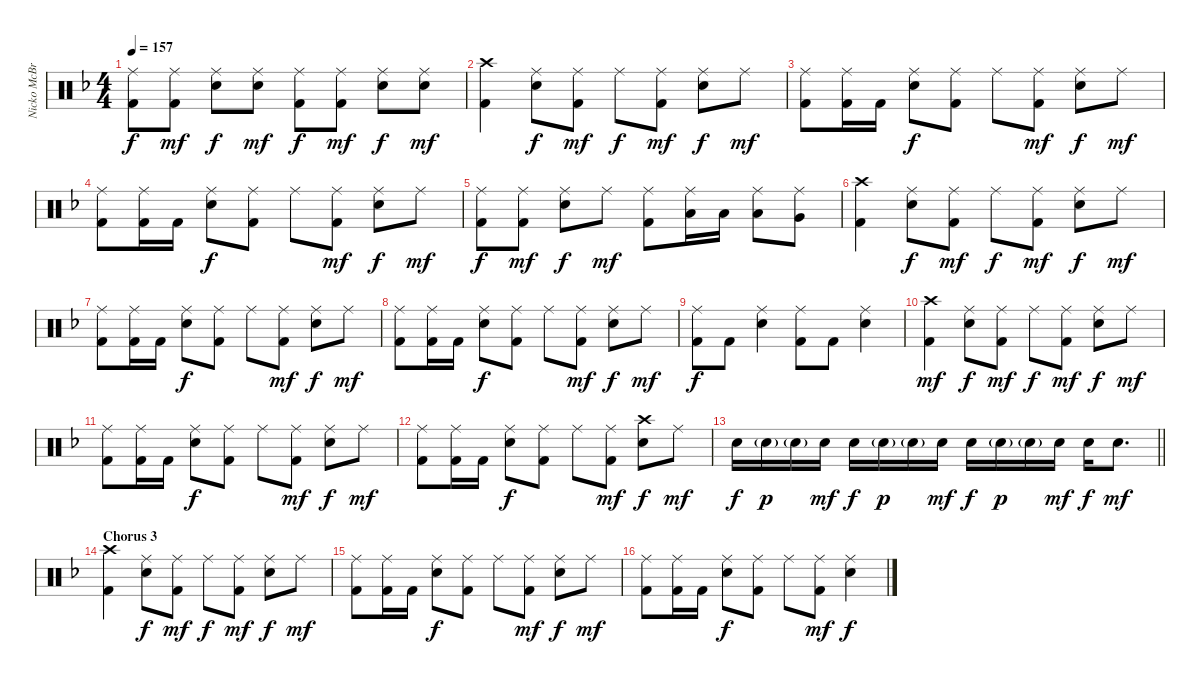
\track ("Nicko McBrain" "Nicko McBr") {instrument percussion}
\staff {score}
\articulation defaults
\ts (4 4)
\tempo 157
\clef neutral
\ks f
("Ride (middle)" "Kick (hit) 2").8{dy f} ("Ride (middle)" "Kick (hit) 2").8{dy mf} ("Ride (middle)" "Electric Snare (hit)").8{dy f} ("Ride (middle)" "Electric Snare (hit)").8{dy mf} ("Ride (middle)" "Kick (hit) 2").8{dy f} ("Ride (middle)" "Kick (hit) 2").8{dy mf} ("Ride (middle)" "Electric Snare (hit)").8{dy f} ("Ride (middle)" "Electric Snare (hit)").8{dy mf} |
("Crash high (hit)" "Kick (hit) 2").4 ("Ride (middle)" "Electric Snare (hit)").8{dy f} ("Ride (middle)" "Kick (hit) 2").8{dy mf} "Ride (middle)".8{dy f} ("Ride (middle)" "Kick (hit) 2").8{dy mf} ("Ride (middle)" "Electric Snare (hit)").8{dy f} "Ride (middle)".8{dy mf} |
("Ride (middle)" "Kick (hit) 2").8 ("Ride (middle)" "Kick (hit) 2").16 "Kick (hit) 2".16 ("Ride (middle)" "Electric Snare (hit)").8{dy f} ("Ride (middle)" "Kick (hit) 2").8 "Ride (middle)".8 ("Ride (middle)" "Kick (hit) 2").8{dy mf} ("Ride (middle)" "Electric Snare (hit)").8{dy f} "Ride (middle)".8{dy mf} |
("Ride (middle)" "Kick (hit) 2").8 ("Ride (middle)" "Kick (hit) 2").16 "Kick (hit) 2".16 ("Ride (middle)" "Electric Snare (hit)").8{dy f} ("Ride (middle)" "Kick (hit) 2").8 "Ride (middle)".8 ("Ride (middle)" "Kick (hit) 2").8{dy mf} ("Ride (middle)" "Electric Snare (hit)").8{dy f} "Ride (middle)".8{dy mf} |
("Ride (middle)" "Kick (hit) 2").8{dy f} ("Ride (middle)" "Kick (hit) 2").8{dy mf} ("Ride (middle)" "Electric Snare (hit)").8{dy f} "Ride (middle)".8{dy mf} ("Ride (middle)" "Kick (hit) 2").8 ("Ride (middle)" "Low Tom (hit)").16 "Low Tom (hit)".16 ("Ride (middle)" "Low Tom (hit)").8 ("Ride (middle)" "Very Low Tom (hit)").8 |
("Crash high (hit)" "Kick (hit) 2").4 ("Ride (middle)" "Electric Snare (hit)").8{dy f} ("Ride (middle)" "Kick (hit) 2").8{dy mf} "Ride (middle)".8{dy f} ("Ride (middle)" "Kick (hit) 2").8{dy mf} ("Ride (middle)" "Electric Snare (hit)").8{dy f} "Ride (middle)".8{dy mf} |
("Ride (middle)" "Kick (hit) 2").8 ("Ride (middle)" "Kick (hit) 2").16 "Kick (hit) 2".16 ("Ride (middle)" "Electric Snare (hit)").8{dy f} ("Ride (middle)" "Kick (hit) 2").8 "Ride (middle)".8 ("Ride (middle)" "Kick (hit) 2").8{dy mf} ("Ride (middle)" "Electric Snare (hit)").8{dy f} "Ride (middle)".8{dy mf} |
("Ride (middle)" "Kick (hit) 2").8 ("Ride (middle)" "Kick (hit) 2").16 "Kick (hit) 2".16 ("Ride (middle)" "Electric Snare (hit)").8{dy f} ("Ride (middle)" "Kick (hit) 2").8 "Ride (middle)".8 ("Ride (middle)" "Kick (hit) 2").8{dy mf} ("Ride (middle)" "Electric Snare (hit)").8{dy f} "Ride (middle)".8{dy mf} |
("Ride (middle)" "Kick (hit) 2").8{dy f} "Kick (hit) 2".8 ("Ride (middle)" "Electric Snare (hit)").4 ("Ride (middle)" "Kick (hit) 2").8 "Kick (hit) 2".8 ("Ride (middle)" "Electric Snare (hit)").4 |
("Crash high (hit)" "Kick (hit) 2").4{dy mf} ("Ride (middle)" "Electric Snare (hit)").8{dy f} ("Ride (middle)" "Kick (hit) 2").8{dy mf} "Ride (middle)".8{dy f} ("Ride (middle)" "Kick (hit) 2").8{dy mf} ("Ride (middle)" "Electric Snare (hit)").8{dy f} "Ride (middle)".8{dy mf} |
("Ride (middle)" "Kick (hit) 2").8 ("Ride (middle)" "Kick (hit) 2").16 "Kick (hit) 2".16 ("Ride (middle)" "Electric Snare (hit)").8{dy f} ("Ride (middle)" "Kick (hit) 2").8 "Ride (middle)".8 ("Ride (middle)" "Kick (hit) 2").8{dy mf} ("Ride (middle)" "Electric Snare (hit)").8{dy f} "Ride (middle)".8{dy mf} |
("Ride (middle)" "Kick (hit) 2").8 ("Ride (middle)" "Kick (hit) 2").16 "Kick (hit) 2".16 ("Ride (middle)" "Electric Snare (hit)").8{dy f} ("Ride (middle)" "Kick (hit) 2").8 "Ride (middle)".8 ("Ride (middle)" "Kick (hit) 2").8{dy mf} ("Crash high (hit)" "Electric Snare (hit)").8{dy f} "Ride (middle)".8{dy mf} |
\barLineRight lightlight "Electric Snare (hit)".16{dy f} "Electric Snare (hit)"{g}.16{dy p} "Electric Snare (hit)"{g}.16 "Electric Snare (hit)".16{dy mf} "Electric Snare (hit)".16{dy f} "Electric Snare (hit)"{g}.16{dy p} "Electric Snare (hit)"{g}.16 "Electric Snare (hit)".16{dy mf} "Electric Snare (hit)".16{dy f} "Electric Snare (hit)"{g}.16{dy p} "Electric Snare (hit)"{g}.16 "Electric Snare (hit)".16{dy mf} "Electric Snare (hit)".16{dy f} "Electric Snare (hit)".8{d dy mf}
|
\section ("" "Chorus 3")
("Crash high (hit)" "Kick (hit) 2").4 ("Ride (middle)" "Electric Snare (hit)").8{dy f} ("Ride (middle)" "Kick (hit) 2").8{dy mf} "Ride (middle)".8{dy f} ("Ride (middle)" "Kick (hit) 2").8{dy mf} ("Ride (middle)" "Electric Snare (hit)").8{dy f} "Ride (middle)".8{dy mf} |
("Ride (middle)" "Kick (hit) 2").8 ("Ride (middle)" "Kick (hit) 2").16 "Kick (hit) 2".16 ("Ride (middle)" "Electric Snare (hit)").8{dy f} ("Ride (middle)" "Kick (hit) 2").8 "Ride (middle)".8 ("Ride (middle)" "Kick (hit) 2").8{dy mf} ("Ride (middle)" "Electric Snare (hit)").8{dy f} "Ride (middle)".8{dy mf} |
("Ride (middle)" "Kick (hit) 2").8 ("Ride (middle)" "Kick (hit) 2").16 "Kick (hit) 2".16 ("Ride (middle)" "Electric Snare (hit)").8{dy f} ("Ride (middle)" "Kick (hit) 2").8 "Ride (middle)".8 ("Ride (middle)" "Kick (hit) 2").8{dy mf} ("Ride (middle)" "Electric Snare (hit)").4{dy f}
